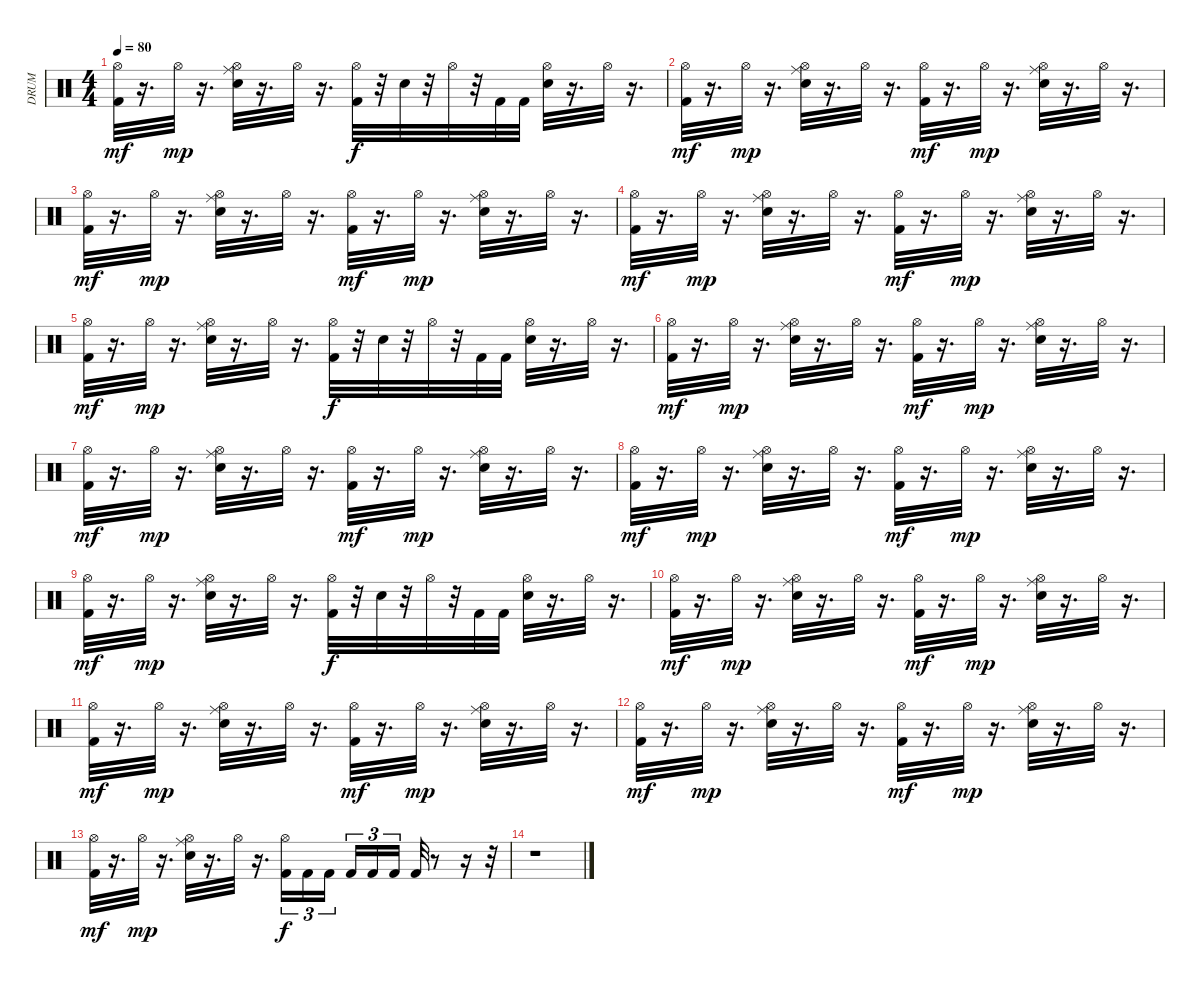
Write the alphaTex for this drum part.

\track ("DRUM" "DRUM") {instrument percussion}
\staff {score}
\articulation defaults
\ts (4 4)
\tempo 80
\clef neutral
\ks c
("Hi-Hat (open)" "Kick (hit) 2").32{dy mf} r.16{d} "Hi-Hat (open)".32{dy mp} r.16{d} ("Ride (middle)" "Hi-Hat (open)" "Electric Snare (hit)").32 r.16{d} "Hi-Hat (open)".32 r.16{d} ("Hi-Hat (open)" "Kick (hit) 2").32{dy f} r.32 "Electric Snare (hit)".32 r.32 "Hi-Hat (open)".32 r.32 "Kick (hit) 2".32 "Kick (hit) 2".32 ("Hi-Hat (open)" "Electric Snare (hit)").32 r.16{d} "Hi-Hat (open)".32 r.16{d} |
("Kick (hit) 2" "Hi-Hat (open)").32{dy mf} r.16{d} "Hi-Hat (open)".32{dy mp} r.16{d} ("Hi-Hat (open)" "Ride (middle)" "Electric Snare (hit)").32 r.16{d} "Hi-Hat (open)".32 r.16{d} ("Kick (hit) 2" "Hi-Hat (open)").32{dy mf} r.16{d} "Hi-Hat (open)".32{dy mp} r.16{d} ("Hi-Hat (open)" "Electric Snare (hit)" "Ride (middle)").32 r.16{d} "Hi-Hat (open)".32 r.16{d} |
("Hi-Hat (open)" "Kick (hit) 2").32{dy mf} r.16{d} "Hi-Hat (open)".32{dy mp} r.16{d} ("Ride (middle)" "Hi-Hat (open)" "Electric Snare (hit)").32 r.16{d} "Hi-Hat (open)".32 r.16{d} ("Hi-Hat (open)" "Kick (hit) 2").32{dy mf} r.16{d} "Hi-Hat (open)".32{dy mp} r.16{d} ("Electric Snare (hit)" "Ride (middle)" "Hi-Hat (open)").32 r.16{d} "Hi-Hat (open)".32 r.16{d} |
("Hi-Hat (open)" "Kick (hit) 2").32{dy mf} r.16{d} "Hi-Hat (open)".32{dy mp} r.16{d} ("Ride (middle)" "Hi-Hat (open)" "Electric Snare (hit)").32 r.16{d} "Hi-Hat (open)".32 r.16{d} ("Hi-Hat (open)" "Kick (hit) 2").32{dy mf} r.16{d} "Hi-Hat (open)".32{dy mp} r.16{d} ("Electric Snare (hit)" "Ride (middle)" "Hi-Hat (open)").32 r.16{d} "Hi-Hat (open)".32 r.16{d} |
("Hi-Hat (open)" "Kick (hit) 2").32{dy mf} r.16{d} "Hi-Hat (open)".32{dy mp} r.16{d} ("Ride (middle)" "Hi-Hat (open)" "Electric Snare (hit)").32 r.16{d} "Hi-Hat (open)".32 r.16{d} ("Hi-Hat (open)" "Kick (hit) 2").32{dy f} r.32 "Electric Snare (hit)".32 r.32 "Hi-Hat (open)".32 r.32 "Kick (hit) 2".32 "Kick (hit) 2".32 ("Hi-Hat (open)" "Electric Snare (hit)").32 r.16{d} "Hi-Hat (open)".32 r.16{d} |
("Kick (hit) 2" "Hi-Hat (open)").32{dy mf} r.16{d} "Hi-Hat (open)".32{dy mp} r.16{d} ("Hi-Hat (open)" "Ride (middle)" "Electric Snare (hit)").32 r.16{d} "Hi-Hat (open)".32 r.16{d} ("Kick (hit) 2" "Hi-Hat (open)").32{dy mf} r.16{d} "Hi-Hat (open)".32{dy mp} r.16{d} ("Hi-Hat (open)" "Electric Snare (hit)" "Ride (middle)").32 r.16{d} "Hi-Hat (open)".32 r.16{d} |
("Hi-Hat (open)" "Kick (hit) 2").32{dy mf} r.16{d} "Hi-Hat (open)".32{dy mp} r.16{d} ("Ride (middle)" "Hi-Hat (open)" "Electric Snare (hit)").32 r.16{d} "Hi-Hat (open)".32 r.16{d} ("Hi-Hat (open)" "Kick (hit) 2").32{dy mf} r.16{d} "Hi-Hat (open)".32{dy mp} r.16{d} ("Electric Snare (hit)" "Ride (middle)" "Hi-Hat (open)").32 r.16{d} "Hi-Hat (open)".32 r.16{d} |
("Hi-Hat (open)" "Kick (hit) 2").32{dy mf} r.16{d} "Hi-Hat (open)".32{dy mp} r.16{d} ("Ride (middle)" "Hi-Hat (open)" "Electric Snare (hit)").32 r.16{d} "Hi-Hat (open)".32 r.16{d} ("Hi-Hat (open)" "Kick (hit) 2").32{dy mf} r.16{d} "Hi-Hat (open)".32{dy mp} r.16{d} ("Electric Snare (hit)" "Ride (middle)" "Hi-Hat (open)").32 r.16{d} "Hi-Hat (open)".32 r.16{d} |
("Hi-Hat (open)" "Kick (hit) 2").32{dy mf} r.16{d} "Hi-Hat (open)".32{dy mp} r.16{d} ("Ride (middle)" "Hi-Hat (open)" "Electric Snare (hit)").32 r.16{d} "Hi-Hat (open)".32 r.16{d} ("Hi-Hat (open)" "Kick (hit) 2").32{dy f} r.32 "Electric Snare (hit)".32 r.32 "Hi-Hat (open)".32 r.32 "Kick (hit) 2".32 "Kick (hit) 2".32 ("Hi-Hat (open)" "Electric Snare (hit)").32 r.16{d} "Hi-Hat (open)".32 r.16{d} |
("Kick (hit) 2" "Hi-Hat (open)").32{dy mf} r.16{d} "Hi-Hat (open)".32{dy mp} r.16{d} ("Hi-Hat (open)" "Ride (middle)" "Electric Snare (hit)").32 r.16{d} "Hi-Hat (open)".32 r.16{d} ("Kick (hit) 2" "Hi-Hat (open)").32{dy mf} r.16{d} "Hi-Hat (open)".32{dy mp} r.16{d} ("Hi-Hat (open)" "Electric Snare (hit)" "Ride (middle)").32 r.16{d} "Hi-Hat (open)".32 r.16{d} |
("Hi-Hat (open)" "Kick (hit) 2").32{dy mf} r.16{d} "Hi-Hat (open)".32{dy mp} r.16{d} ("Ride (middle)" "Hi-Hat (open)" "Electric Snare (hit)").32 r.16{d} "Hi-Hat (open)".32 r.16{d} ("Hi-Hat (open)" "Kick (hit) 2").32{dy mf} r.16{d} "Hi-Hat (open)".32{dy mp} r.16{d} ("Electric Snare (hit)" "Ride (middle)" "Hi-Hat (open)").32 r.16{d} "Hi-Hat (open)".32 r.16{d} |
("Hi-Hat (open)" "Kick (hit) 2").32{dy mf} r.16{d} "Hi-Hat (open)".32{dy mp} r.16{d} ("Ride (middle)" "Hi-Hat (open)" "Electric Snare (hit)").32 r.16{d} "Hi-Hat (open)".32 r.16{d} ("Hi-Hat (open)" "Kick (hit) 2").32{dy mf} r.16{d} "Hi-Hat (open)".32{dy mp} r.16{d} ("Electric Snare (hit)" "Ride (middle)" "Hi-Hat (open)").32 r.16{d} "Hi-Hat (open)".32 r.16{d} |
("Hi-Hat (open)" "Kick (hit) 2").32{dy mf} r.16{d} "Hi-Hat (open)".32{dy mp} r.16{d} ("Ride (middle)" "Hi-Hat (open)" "Electric Snare (hit)").32 r.16{d} "Hi-Hat (open)".32 r.16{d} ("Hi-Hat (open)" "Kick (hit) 2").16{tu (3 2) dy f} "Kick (hit) 2".16{tu (3 2)} "Kick (hit) 2".16{tu (3 2)} "Kick (hit) 2".16{tu (3 2)} "Kick (hit) 2".16{tu (3 2)} "Kick (hit) 2".16{tu (3 2)} "Kick (hit) 2".32 r.8 r.16 r.32 |
r.1
